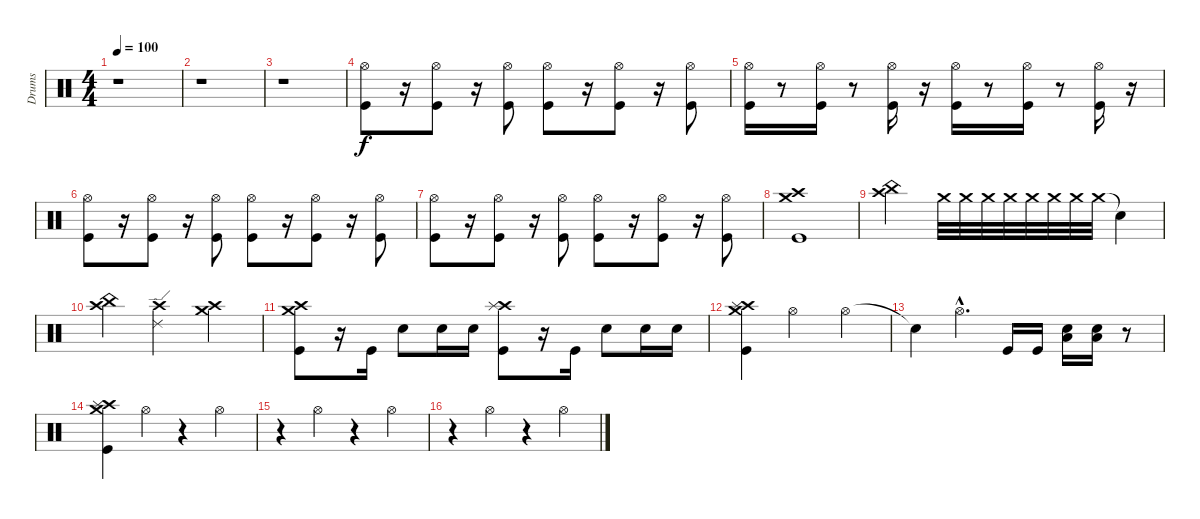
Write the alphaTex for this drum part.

\track ("Drums" "Drums") {instrument percussion}
\staff {score}
\articulation defaults
\ts (4 4)
\tempo 100
\clef neutral
\ks c
r.1{dy f} |
r.1 |
r.1 |
("Kick (hit)" "Hi-Hat (open)").8 r.16 ("Kick (hit)" "Hi-Hat (open)").8 r.16 ("Kick (hit)" "Hi-Hat (open)").8 ("Kick (hit)" "Hi-Hat (open)").8 r.16 ("Kick (hit)" "Hi-Hat (open)").8 r.16 ("Kick (hit)" "Hi-Hat (open)").8 |
("Kick (hit)" "Hi-Hat (open)").16 r.8 ("Kick (hit)" "Hi-Hat (open)").16 r.8 ("Kick (hit)" "Hi-Hat (open)").16 r.16 ("Kick (hit)" "Hi-Hat (open)").16 r.8 ("Kick (hit)" "Hi-Hat (open)").16 r.8 ("Kick (hit)" "Hi-Hat (open)").16 r.16 |
("Kick (hit)" "Hi-Hat (open)").8 r.16 ("Kick (hit)" "Hi-Hat (open)").8 r.16 ("Kick (hit)" "Hi-Hat (open)").8 ("Kick (hit)" "Hi-Hat (open)").8 r.16 ("Kick (hit)" "Hi-Hat (open)").8 r.16 ("Kick (hit)" "Hi-Hat (open)").8 |
("Kick (hit)" "Hi-Hat (open)").8 r.16 ("Kick (hit)" "Hi-Hat (open)").8 r.16 ("Kick (hit)" "Hi-Hat (open)").8 ("Kick (hit)" "Hi-Hat (open)").8 r.16 ("Kick (hit)" "Hi-Hat (open)").8 r.16 ("Kick (hit)" "Hi-Hat (open)").8 |
("Kick (hit)" "Crash medium (hit)" "Crash high (hit)").1 |
("China (hit)" "Crash high (hit)").2{volume 2} "Crash medium (hit)".32{volume 3} "Crash medium (hit)".32{volume 5} "Crash medium (hit)".32{volume 7} "Crash medium (hit)".32{volume 9} "Crash medium (hit)".32{volume 11} "Crash medium (hit)".32{volume 13} "Crash medium (hit)".32{volume 14} "Crash medium (hit)".32{volume 16} "Snare (hit)"{t}.4 |
("China (hit)" "Crash high (hit)").4{volume 13} ("Ride (edge) 2" "Crash high (hit)").2{volume 2} ("Crash high (hit)" "Crash medium (hit)").4{volume 3} |
("Kick (hit)" "Crash high (hit)" "Crash medium (hit)").8{volume 13} r.16 "Kick (hit)".16 "Electric Snare (hit)".8 "Electric Snare (hit)".16 "Electric Snare (hit)".16 ("Kick (hit)" "Crash high (hit)" "Splash (hit)").8 r.16 "Kick (hit)".16 "Electric Snare (hit)".8 "Electric Snare (hit)".16 "Electric Snare (hit)".16 |
("Kick (hit)" "Crash high (hit)" "Splash (hit)" "Crash medium (hit)").4 "Hi-Hat (open)".2 "Hi-Hat (open)".4 |
"Snare (hit)"{t}.4 "Hi-Hat (open)"{hac}.4{d} "Kick (hit)".16 "Kick (hit)".16 ("Electric Snare (hit)" "Low Floor Tom (hit)").16 ("Electric Snare (hit)" "Low Floor Tom (hit)").16 r.8 |
("Kick (hit)" "Crash high (hit)" "Crash medium (hit)" "Splash (hit)").4 "Hi-Hat (open)".4 r.4 "Hi-Hat (open)".4 |
r.4 "Hi-Hat (open)".4 r.4 "Hi-Hat (open)".4 |
r.4 "Hi-Hat (open)".4 r.4 "Hi-Hat (open)".4
